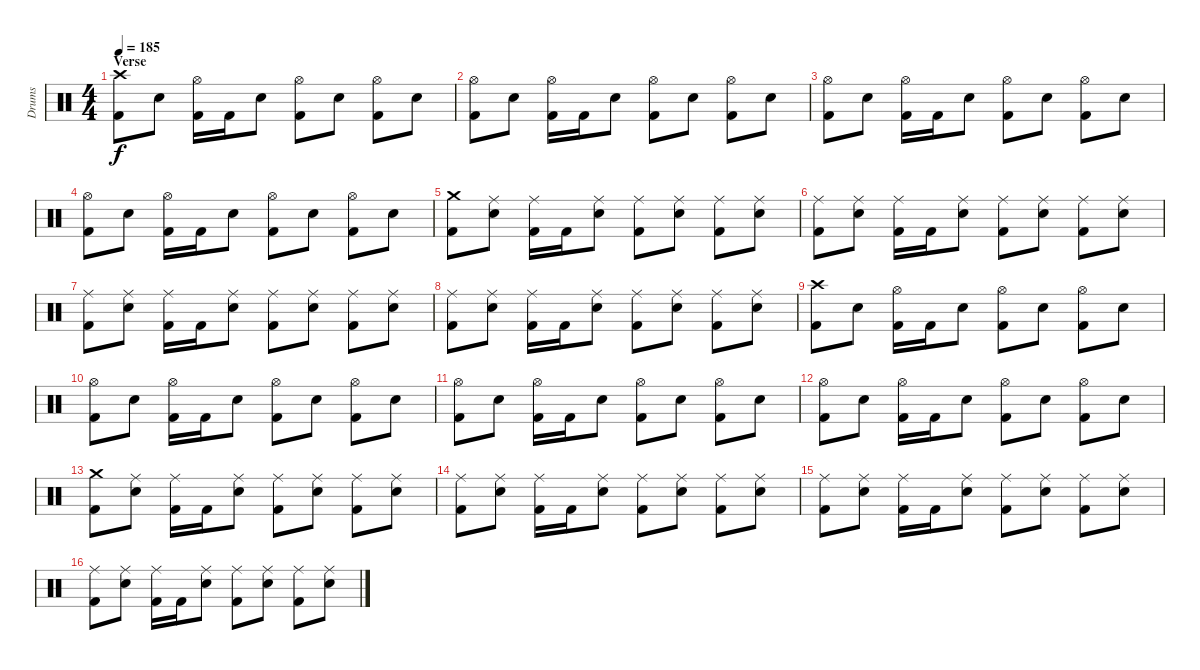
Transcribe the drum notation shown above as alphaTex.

\track ("Drums" "Drums") {instrument percussion}
\staff {score}
\articulation defaults
\ts (4 4)
\section ("" "Verse")
\tempo 185
\clef neutral
\ks c
("Crash high (hit)" "Kick (hit) 2").8{dy f} "Electric Snare (hit)".8 ("Hi-Hat (open)" "Kick (hit) 2").16 "Kick (hit) 2".16 "Electric Snare (hit)".8 ("Hi-Hat (open)" "Kick (hit) 2").8 "Electric Snare (hit)".8 ("Hi-Hat (open)" "Kick (hit) 2").8 "Electric Snare (hit)".8 |
("Hi-Hat (open)" "Kick (hit) 2").8 "Electric Snare (hit)".8 ("Hi-Hat (open)" "Kick (hit) 2").16 "Kick (hit) 2".16 "Electric Snare (hit)".8 ("Hi-Hat (open)" "Kick (hit) 2").8 "Electric Snare (hit)".8 ("Hi-Hat (open)" "Kick (hit) 2").8 "Electric Snare (hit)".8 |
("Hi-Hat (open)" "Kick (hit) 2").8 "Electric Snare (hit)".8 ("Hi-Hat (open)" "Kick (hit) 2").16 "Kick (hit) 2".16 "Electric Snare (hit)".8 ("Hi-Hat (open)" "Kick (hit) 2").8 "Electric Snare (hit)".8 ("Hi-Hat (open)" "Kick (hit) 2").8 "Electric Snare (hit)".8 |
("Hi-Hat (open)" "Kick (hit) 2").8 "Electric Snare (hit)".8 ("Hi-Hat (open)" "Kick (hit) 2").16 "Kick (hit) 2".16 "Electric Snare (hit)".8 ("Hi-Hat (open)" "Kick (hit) 2").8 "Electric Snare (hit)".8 ("Hi-Hat (open)" "Kick (hit) 2").8 "Electric Snare (hit)".8 |
("Crash medium (hit)" "Kick (hit) 2").8 ("Ride (middle)" "Electric Snare (hit)").8 ("Ride (middle)" "Kick (hit) 2").16 "Kick (hit) 2".16 ("Ride (middle)" "Electric Snare (hit)").8 ("Ride (middle)" "Kick (hit) 2").8 ("Ride (middle)" "Electric Snare (hit)").8 ("Ride (middle)" "Kick (hit) 2").8 ("Ride (middle)" "Electric Snare (hit)").8 |
("Ride (middle)" "Kick (hit) 2").8 ("Ride (middle)" "Electric Snare (hit)").8 ("Ride (middle)" "Kick (hit) 2").16 "Kick (hit) 2".16 ("Ride (middle)" "Electric Snare (hit)").8 ("Ride (middle)" "Kick (hit) 2").8 ("Ride (middle)" "Electric Snare (hit)").8 ("Ride (middle)" "Kick (hit) 2").8 ("Ride (middle)" "Electric Snare (hit)").8 |
("Ride (middle)" "Kick (hit) 2").8 ("Ride (middle)" "Electric Snare (hit)").8 ("Ride (middle)" "Kick (hit) 2").16 "Kick (hit) 2".16 ("Ride (middle)" "Electric Snare (hit)").8 ("Ride (middle)" "Kick (hit) 2").8 ("Ride (middle)" "Electric Snare (hit)").8 ("Ride (middle)" "Kick (hit) 2").8 ("Ride (middle)" "Electric Snare (hit)").8 |
("Ride (middle)" "Kick (hit) 2").8 ("Ride (middle)" "Electric Snare (hit)").8 ("Ride (middle)" "Kick (hit) 2").16 "Kick (hit) 2".16 ("Ride (middle)" "Electric Snare (hit)").8 ("Ride (middle)" "Kick (hit) 2").8 ("Ride (middle)" "Electric Snare (hit)").8 ("Ride (middle)" "Kick (hit) 2").8 ("Ride (middle)" "Electric Snare (hit)").8 |
("Crash high (hit)" "Kick (hit) 2").8 "Electric Snare (hit)".8 ("Hi-Hat (open)" "Kick (hit) 2").16 "Kick (hit) 2".16 "Electric Snare (hit)".8 ("Hi-Hat (open)" "Kick (hit) 2").8 "Electric Snare (hit)".8 ("Hi-Hat (open)" "Kick (hit) 2").8 "Electric Snare (hit)".8 |
("Hi-Hat (open)" "Kick (hit) 2").8 "Electric Snare (hit)".8 ("Hi-Hat (open)" "Kick (hit) 2").16 "Kick (hit) 2".16 "Electric Snare (hit)".8 ("Hi-Hat (open)" "Kick (hit) 2").8 "Electric Snare (hit)".8 ("Hi-Hat (open)" "Kick (hit) 2").8 "Electric Snare (hit)".8 |
("Hi-Hat (open)" "Kick (hit) 2").8 "Electric Snare (hit)".8 ("Hi-Hat (open)" "Kick (hit) 2").16 "Kick (hit) 2".16 "Electric Snare (hit)".8 ("Hi-Hat (open)" "Kick (hit) 2").8 "Electric Snare (hit)".8 ("Hi-Hat (open)" "Kick (hit) 2").8 "Electric Snare (hit)".8 |
("Hi-Hat (open)" "Kick (hit) 2").8 "Electric Snare (hit)".8 ("Hi-Hat (open)" "Kick (hit) 2").16 "Kick (hit) 2".16 "Electric Snare (hit)".8 ("Hi-Hat (open)" "Kick (hit) 2").8 "Electric Snare (hit)".8 ("Hi-Hat (open)" "Kick (hit) 2").8 "Electric Snare (hit)".8 |
("Crash medium (hit)" "Kick (hit) 2").8 ("Ride (middle)" "Electric Snare (hit)").8 ("Ride (middle)" "Kick (hit) 2").16 "Kick (hit) 2".16 ("Ride (middle)" "Electric Snare (hit)").8 ("Ride (middle)" "Kick (hit) 2").8 ("Ride (middle)" "Electric Snare (hit)").8 ("Ride (middle)" "Kick (hit) 2").8 ("Ride (middle)" "Electric Snare (hit)").8 |
("Ride (middle)" "Kick (hit) 2").8 ("Ride (middle)" "Electric Snare (hit)").8 ("Ride (middle)" "Kick (hit) 2").16 "Kick (hit) 2".16 ("Ride (middle)" "Electric Snare (hit)").8 ("Ride (middle)" "Kick (hit) 2").8 ("Ride (middle)" "Electric Snare (hit)").8 ("Ride (middle)" "Kick (hit) 2").8 ("Ride (middle)" "Electric Snare (hit)").8 |
("Ride (middle)" "Kick (hit) 2").8 ("Ride (middle)" "Electric Snare (hit)").8 ("Ride (middle)" "Kick (hit) 2").16 "Kick (hit) 2".16 ("Ride (middle)" "Electric Snare (hit)").8 ("Ride (middle)" "Kick (hit) 2").8 ("Ride (middle)" "Electric Snare (hit)").8 ("Ride (middle)" "Kick (hit) 2").8 ("Ride (middle)" "Electric Snare (hit)").8 |
("Ride (middle)" "Kick (hit) 2").8 ("Ride (middle)" "Electric Snare (hit)").8 ("Ride (middle)" "Kick (hit) 2").16 "Kick (hit) 2".16 ("Ride (middle)" "Electric Snare (hit)").8 ("Ride (middle)" "Kick (hit) 2").8 ("Ride (middle)" "Electric Snare (hit)").8 ("Ride (middle)" "Kick (hit) 2").8 ("Ride (middle)" "Electric Snare (hit)").8
